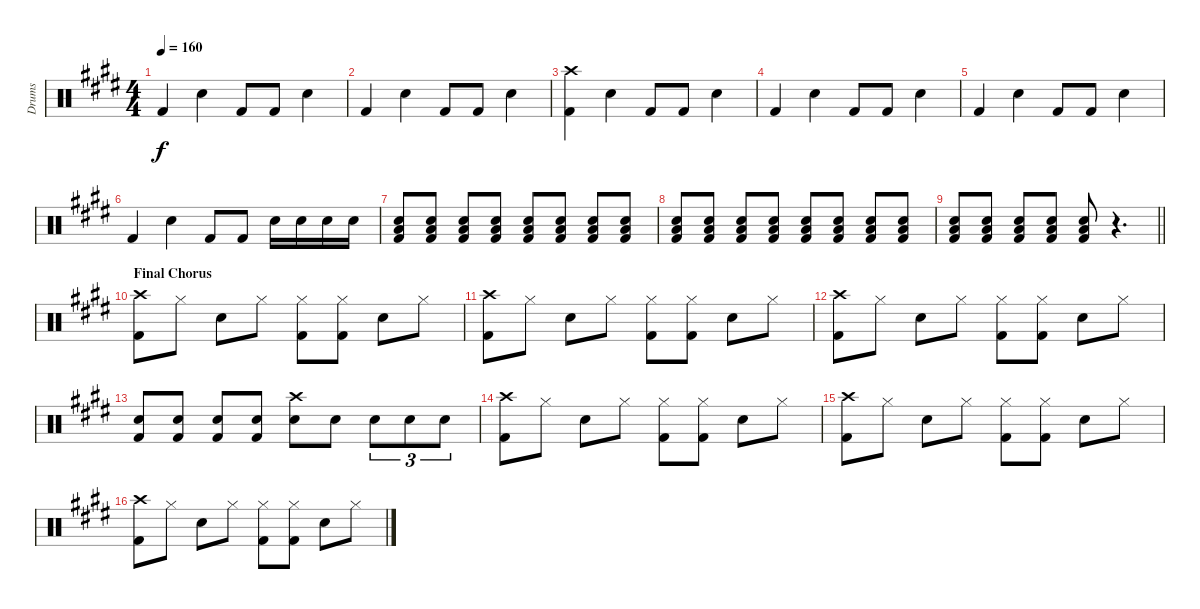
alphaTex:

\track ("Drums" "Drums") {instrument percussion}
\staff {score}
\articulation defaults
\ts (4 4)
\tempo 160
\clef neutral
\ks e "Kick (hit) 2".4{dy f} "Snare (hit) 2".4 "Kick (hit) 2".8 "Kick (hit) 2".8 "Snare (hit) 2".4
|
"Kick (hit) 2".4 "Snare (hit) 2".4 "Kick (hit) 2".8 "Kick (hit) 2".8 "Snare (hit) 2".4 |
("Kick (hit) 2" "Crash high (hit)").4 "Snare (hit) 2".4 "Kick (hit) 2".8 "Kick (hit) 2".8 "Snare (hit) 2".4 |
"Kick (hit) 2".4 "Snare (hit) 2".4 "Kick (hit) 2".8 "Kick (hit) 2".8 "Snare (hit) 2".4 |
"Kick (hit) 2".4 "Snare (hit) 2".4 "Kick (hit) 2".8 "Kick (hit) 2".8 "Snare (hit) 2".4 |
"Kick (hit) 2".4 "Snare (hit) 2".4 "Kick (hit) 2".8 "Kick (hit) 2".8 "Snare (hit) 2".16 "Snare (hit) 2".16 "Snare (hit) 2".16 "Snare (hit) 2".16 |
("Kick (hit) 2" "Low Floor Tom (hit)" "Snare (hit) 2").8 ("Kick (hit) 2" "Low Floor Tom (hit)" "Snare (hit) 2").8 ("Kick (hit) 2" "Low Floor Tom (hit)" "Snare (hit) 2").8 ("Kick (hit) 2" "Low Floor Tom (hit)" "Snare (hit) 2").8 ("Kick (hit) 2" "Low Floor Tom (hit)" "Snare (hit) 2").8 ("Kick (hit) 2" "Low Floor Tom (hit)" "Snare (hit) 2").8 ("Kick (hit) 2" "Low Floor Tom (hit)" "Snare (hit) 2").8 ("Kick (hit) 2" "Low Floor Tom (hit)" "Snare (hit) 2").8 |
("Kick (hit) 2" "Low Floor Tom (hit)" "Snare (hit) 2").8 ("Kick (hit) 2" "Low Floor Tom (hit)" "Snare (hit) 2").8 ("Kick (hit) 2" "Low Floor Tom (hit)" "Snare (hit) 2").8 ("Kick (hit) 2" "Low Floor Tom (hit)" "Snare (hit) 2").8 ("Kick (hit) 2" "Low Floor Tom (hit)" "Snare (hit) 2").8 ("Kick (hit) 2" "Low Floor Tom (hit)" "Snare (hit) 2").8 ("Kick (hit) 2" "Low Floor Tom (hit)" "Snare (hit) 2").8 ("Kick (hit) 2" "Low Floor Tom (hit)" "Snare (hit) 2").8 |
\barLineRight lightlight
("Kick (hit) 2" "Low Floor Tom (hit)" "Snare (hit) 2").8 ("Kick (hit) 2" "Low Floor Tom (hit)" "Snare (hit) 2").8 ("Kick (hit) 2" "Low Floor Tom (hit)" "Snare (hit) 2").8 ("Kick (hit) 2" "Low Floor Tom (hit)" "Snare (hit) 2").8 ("Kick (hit) 2" "Low Floor Tom (hit)" "Snare (hit) 2").8 r.4{d} |
\section ("" "Final Chorus")
("Kick (hit) 2" "Crash high (hit)").8 "Hi-Hat (closed)".8 "Snare (hit) 2".8 "Hi-Hat (closed)".8 ("Kick (hit) 2" "Hi-Hat (closed)").8 ("Kick (hit) 2" "Hi-Hat (closed)").8 "Snare (hit) 2".8 "Hi-Hat (closed)".8 |
("Kick (hit) 2" "Crash high (hit)").8 "Hi-Hat (closed)".8 "Snare (hit) 2".8 "Hi-Hat (closed)".8 ("Kick (hit) 2" "Hi-Hat (closed)").8 ("Kick (hit) 2" "Hi-Hat (closed)").8 "Snare (hit) 2".8 "Hi-Hat (closed)".8 |
("Kick (hit) 2" "Crash high (hit)").8 "Hi-Hat (closed)".8 "Snare (hit) 2".8 "Hi-Hat (closed)".8 ("Kick (hit) 2" "Hi-Hat (closed)").8 ("Kick (hit) 2" "Hi-Hat (closed)").8 "Snare (hit) 2".8 "Hi-Hat (closed)".8 |
("Kick (hit) 2" "Snare (hit) 2").8 ("Kick (hit) 2" "Snare (hit) 2").8 ("Kick (hit) 2" "Snare (hit) 2").8 ("Kick (hit) 2" "Snare (hit) 2").8 ("Crash high (hit)" "Snare (hit) 2").8 "Snare (hit) 2".8 "Snare (hit) 2".8{tu (3 2)} "Snare (hit) 2".8{tu (3 2)} "Snare (hit) 2".8{tu (3 2)} |
("Kick (hit) 2" "Crash high (hit)").8 "Hi-Hat (closed)".8 "Snare (hit) 2".8 "Hi-Hat (closed)".8 ("Kick (hit) 2" "Hi-Hat (closed)").8 ("Kick (hit) 2" "Hi-Hat (closed)").8 "Snare (hit) 2".8 "Hi-Hat (closed)".8 |
("Kick (hit) 2" "Crash high (hit)").8 "Hi-Hat (closed)".8 "Snare (hit) 2".8 "Hi-Hat (closed)".8 ("Kick (hit) 2" "Hi-Hat (closed)").8 ("Kick (hit) 2" "Hi-Hat (closed)").8 "Snare (hit) 2".8 "Hi-Hat (closed)".8 |
("Kick (hit) 2" "Crash high (hit)").8 "Hi-Hat (closed)".8 "Snare (hit) 2".8 "Hi-Hat (closed)".8 ("Kick (hit) 2" "Hi-Hat (closed)").8 ("Kick (hit) 2" "Hi-Hat (closed)").8 "Snare (hit) 2".8 "Hi-Hat (closed)".8
